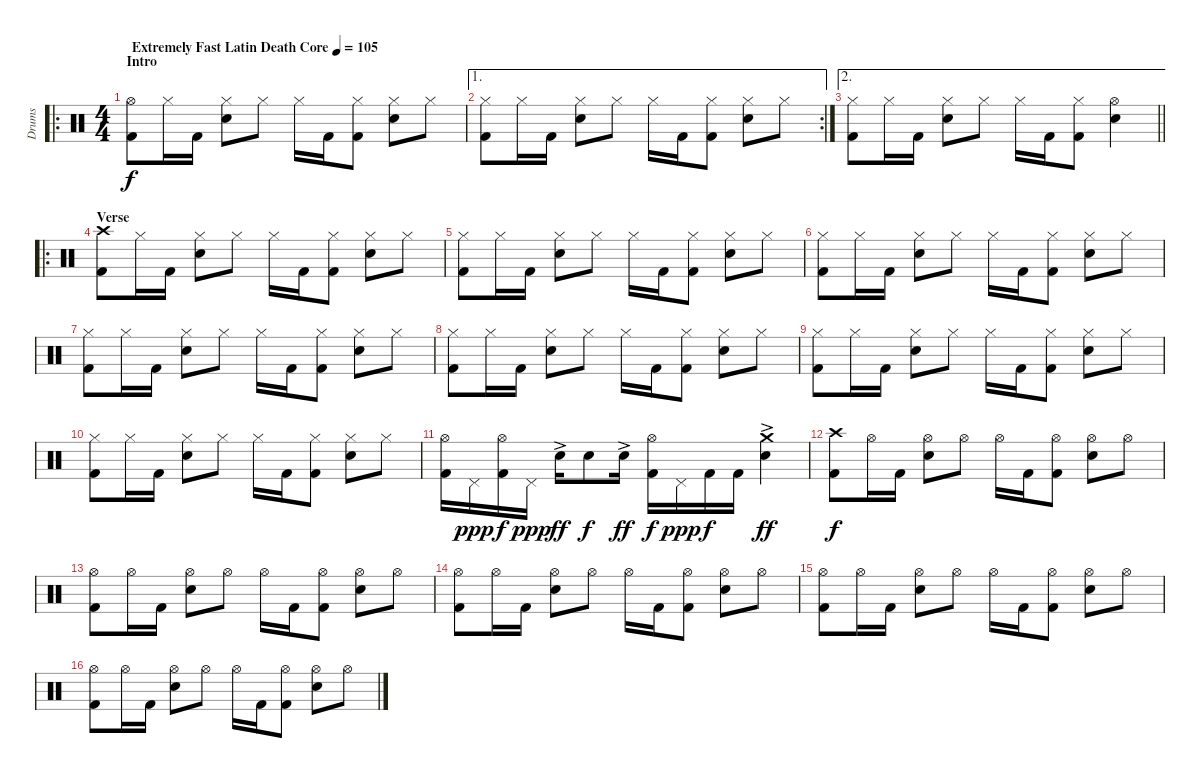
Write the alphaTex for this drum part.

\track ("Drums" "Drums") {instrument percussion}
\staff {score}
\articulation defaults
\ro
\ts (4 4)
\section ("" "Intro")
\tempo (105 "Extremely Fast Latin Death Core")
\clef neutral
\ks c
("Hi-Hat (open)" "Kick (hit) 2").8{dy f} "Hi-Hat (closed)".16 "Kick (hit) 2".16 ("Hi-Hat (closed)" "Electric Snare (hit)").8 "Hi-Hat (closed)".8 "Hi-Hat (closed)".16 "Kick (hit) 2".16 ("Hi-Hat (closed)" "Kick (hit) 2").8 ("Hi-Hat (closed)" "Electric Snare (hit)").8 "Hi-Hat (closed)".8 |
\ae 1
\rc 2
("Hi-Hat (closed)" "Kick (hit) 2").8 "Hi-Hat (closed)".16 "Kick (hit) 2".16 ("Hi-Hat (closed)" "Electric Snare (hit)").8 "Hi-Hat (closed)".8 "Hi-Hat (closed)".16 "Kick (hit) 2".16 ("Hi-Hat (closed)" "Kick (hit) 2").8 ("Hi-Hat (closed)" "Electric Snare (hit)").8 "Hi-Hat (closed)".8 |
\ae 2
\barLineRight lightlight
("Hi-Hat (closed)" "Kick (hit) 2").8 "Hi-Hat (closed)".16 "Kick (hit) 2".16 ("Hi-Hat (closed)" "Electric Snare (hit)").8 "Hi-Hat (closed)".8 "Hi-Hat (closed)".16 "Kick (hit) 2".16 ("Hi-Hat (closed)" "Kick (hit) 2").8 ("Hi-Hat (open)" "Electric Snare (hit)").4 |
\ro
\section ("" "Verse")
("Crash high (hit)" "Kick (hit) 2").8 "Hi-Hat (closed)".16 "Kick (hit) 2".16 ("Hi-Hat (closed)" "Electric Snare (hit)").8 "Hi-Hat (closed)".8 "Hi-Hat (closed)".16 "Kick (hit) 2".16 ("Hi-Hat (closed)" "Kick (hit) 2").8 ("Hi-Hat (closed)" "Electric Snare (hit)").8 "Hi-Hat (closed)".8 |
("Hi-Hat (closed)" "Kick (hit) 2").8 "Hi-Hat (closed)".16 "Kick (hit) 2".16 ("Hi-Hat (closed)" "Electric Snare (hit)").8 "Hi-Hat (closed)".8 "Hi-Hat (closed)".16 "Kick (hit) 2".16 ("Hi-Hat (closed)" "Kick (hit) 2").8 ("Hi-Hat (closed)" "Electric Snare (hit)").8 "Hi-Hat (closed)".8 |
("Hi-Hat (closed)" "Kick (hit) 2").8 "Hi-Hat (closed)".16 "Kick (hit) 2".16 ("Hi-Hat (closed)" "Electric Snare (hit)").8 "Hi-Hat (closed)".8 "Hi-Hat (closed)".16 "Kick (hit) 2".16 ("Hi-Hat (closed)" "Kick (hit) 2").8 ("Hi-Hat (closed)" "Electric Snare (hit)").8 "Hi-Hat (closed)".8 |
("Hi-Hat (closed)" "Kick (hit) 2").8 "Hi-Hat (closed)".16 "Kick (hit) 2".16 ("Hi-Hat (closed)" "Electric Snare (hit)").8 "Hi-Hat (closed)".8 "Hi-Hat (closed)".16 "Kick (hit) 2".16 ("Hi-Hat (closed)" "Kick (hit) 2").8 ("Hi-Hat (closed)" "Electric Snare (hit)").8 "Hi-Hat (closed)".8 |
("Hi-Hat (closed)" "Kick (hit) 2").8 "Hi-Hat (closed)".16 "Kick (hit) 2".16 ("Hi-Hat (closed)" "Electric Snare (hit)").8 "Hi-Hat (closed)".8 "Hi-Hat (closed)".16 "Kick (hit) 2".16 ("Hi-Hat (closed)" "Kick (hit) 2").8 ("Hi-Hat (closed)" "Electric Snare (hit)").8 "Hi-Hat (closed)".8 |
("Hi-Hat (closed)" "Kick (hit) 2").8 "Hi-Hat (closed)".16 "Kick (hit) 2".16 ("Hi-Hat (closed)" "Electric Snare (hit)").8 "Hi-Hat (closed)".8 "Hi-Hat (closed)".16 "Kick (hit) 2".16 ("Hi-Hat (closed)" "Kick (hit) 2").8 ("Hi-Hat (closed)" "Electric Snare (hit)").8 "Hi-Hat (closed)".8 |
("Hi-Hat (closed)" "Kick (hit) 2").8 "Hi-Hat (closed)".16 "Kick (hit) 2".16 ("Hi-Hat (closed)" "Electric Snare (hit)").8 "Hi-Hat (closed)".8 "Hi-Hat (closed)".16 "Kick (hit) 2".16 ("Hi-Hat (closed)" "Kick (hit) 2").8 ("Hi-Hat (closed)" "Electric Snare (hit)").8 "Hi-Hat (closed)".8 |
("Hi-Hat (open)" "Kick (hit) 2").16 "Pedal Hi-Hat (hit)".16{dy ppp} ("Hi-Hat (open)" "Kick (hit) 2").16{dy f} "Pedal Hi-Hat (hit)".16{dy ppp} "Electric Snare (hit)"{ac}.16{dy ff} "Electric Snare (hit)".8{dy f} "Electric Snare (hit)"{ac}.16{dy ff} ("Hi-Hat (open)" "Kick (hit) 2").16{dy f} "Pedal Hi-Hat (hit)".16{dy ppp} "Kick (hit) 2".16{dy f} "Kick (hit) 2".16 ("Crash medium (hit)" "Electric Snare (hit)"{ac}).4{dy ff} |
("Crash high (hit)" "Kick (hit) 2").8{dy f} "Hi-Hat (open)".16 "Kick (hit) 2".16 ("Hi-Hat (open)" "Electric Snare (hit)").8 "Hi-Hat (open)".8 "Hi-Hat (open)".16 "Kick (hit) 2".16 ("Hi-Hat (open)" "Kick (hit) 2").8 ("Hi-Hat (open)" "Electric Snare (hit)").8 "Hi-Hat (open)".8 |
("Hi-Hat (open)" "Kick (hit) 2").8 "Hi-Hat (open)".16 "Kick (hit) 2".16 ("Hi-Hat (open)" "Electric Snare (hit)").8 "Hi-Hat (open)".8 "Hi-Hat (open)".16 "Kick (hit) 2".16 ("Hi-Hat (open)" "Kick (hit) 2").8 ("Hi-Hat (open)" "Electric Snare (hit)").8 "Hi-Hat (open)".8 |
("Hi-Hat (open)" "Kick (hit) 2").8 "Hi-Hat (open)".16 "Kick (hit) 2".16 ("Hi-Hat (open)" "Electric Snare (hit)").8 "Hi-Hat (open)".8 "Hi-Hat (open)".16 "Kick (hit) 2".16 ("Hi-Hat (open)" "Kick (hit) 2").8 ("Hi-Hat (open)" "Electric Snare (hit)").8 "Hi-Hat (open)".8 |
("Hi-Hat (open)" "Kick (hit) 2").8 "Hi-Hat (open)".16 "Kick (hit) 2".16 ("Hi-Hat (open)" "Electric Snare (hit)").8 "Hi-Hat (open)".8 "Hi-Hat (open)".16 "Kick (hit) 2".16 ("Hi-Hat (open)" "Kick (hit) 2").8 ("Hi-Hat (open)" "Electric Snare (hit)").8 "Hi-Hat (open)".8 |
("Hi-Hat (open)" "Kick (hit) 2").8 "Hi-Hat (open)".16 "Kick (hit) 2".16 ("Hi-Hat (open)" "Electric Snare (hit)").8 "Hi-Hat (open)".8 "Hi-Hat (open)".16 "Kick (hit) 2".16 ("Hi-Hat (open)" "Kick (hit) 2").8 ("Hi-Hat (open)" "Electric Snare (hit)").8 "Hi-Hat (open)".8
